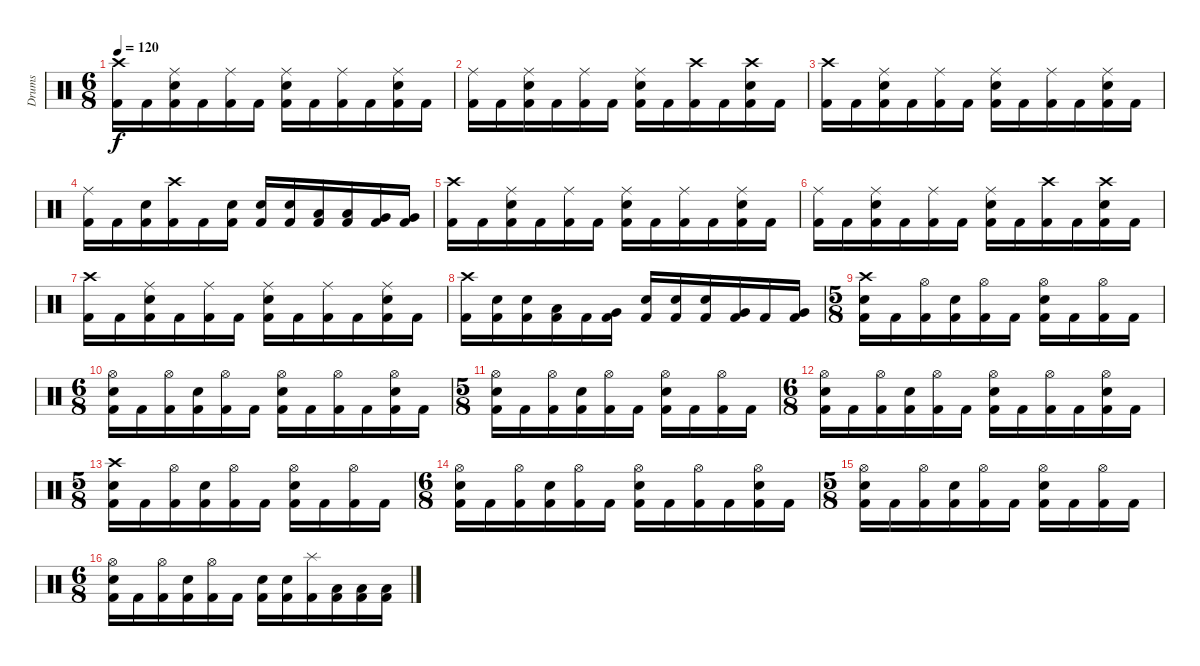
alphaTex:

\track ("Drums" "Drums") {instrument percussion}
\staff {score}
\articulation defaults
\ts (6 8)
\tempo 120
\clef neutral
\ks c
("Crash high (hit)" "Kick (hit) 2").16{dy f} "Kick (hit) 2".16 ("Ride (middle)" "Snare (hit) 2" "Kick (hit) 2").16 "Kick (hit) 2".16 ("Ride (middle)" "Kick (hit) 2").16 "Kick (hit) 2".16 ("Ride (middle)" "Snare (hit) 2" "Kick (hit) 2").16 "Kick (hit) 2".16 ("Ride (middle)" "Kick (hit) 2").16 "Kick (hit) 2".16 ("Ride (middle)" "Snare (hit) 2" "Kick (hit) 2").16 "Kick (hit) 2".16 |
("Ride (middle)" "Kick (hit) 2").16 "Kick (hit) 2".16 ("Ride (middle)" "Snare (hit) 2" "Kick (hit) 2").16 "Kick (hit) 2".16 ("Ride (middle)" "Kick (hit) 2").16 "Kick (hit) 2".16 ("Ride (middle)" "Snare (hit) 2" "Kick (hit) 2").16 "Kick (hit) 2".16 ("Crash high (hit)" "Kick (hit) 2").16 "Kick (hit) 2".16 ("Crash high (hit)" "Snare (hit) 2" "Kick (hit) 2").16 "Kick (hit) 2".16 |
("Crash high (hit)" "Kick (hit) 2").16 "Kick (hit) 2".16 ("Ride (middle)" "Snare (hit) 2" "Kick (hit) 2").16 "Kick (hit) 2".16 ("Ride (middle)" "Kick (hit) 2").16 "Kick (hit) 2".16 ("Ride (middle)" "Snare (hit) 2" "Kick (hit) 2").16 "Kick (hit) 2".16 ("Ride (middle)" "Kick (hit) 2").16 "Kick (hit) 2".16 ("Ride (middle)" "Snare (hit) 2" "Kick (hit) 2").16 "Kick (hit) 2".16 |
("Ride (middle)" "Kick (hit) 2").16 "Kick (hit) 2".16 ("Snare (hit) 2" "Kick (hit) 2").16 ("Crash high (hit)" "Kick (hit) 2").16 "Kick (hit) 2".16 ("Snare (hit) 2" "Kick (hit) 2").16 ("Snare (hit) 2" "Kick (hit) 2").16 ("Snare (hit) 2" "Kick (hit) 2").16 ("Low Tom (hit)" "Kick (hit) 2").16 ("Low Tom (hit)" "Kick (hit) 2").16 ("Very Low Tom (hit)" "Kick (hit) 2").16 ("Very Low Tom (hit)" "Kick (hit) 2").16 |
("Crash high (hit)" "Kick (hit) 2").16 "Kick (hit) 2".16 ("Ride (middle)" "Snare (hit) 2" "Kick (hit) 2").16 "Kick (hit) 2".16 ("Ride (middle)" "Kick (hit) 2").16 "Kick (hit) 2".16 ("Ride (middle)" "Snare (hit) 2" "Kick (hit) 2").16 "Kick (hit) 2".16 ("Ride (middle)" "Kick (hit) 2").16 "Kick (hit) 2".16 ("Ride (middle)" "Snare (hit) 2" "Kick (hit) 2").16 "Kick (hit) 2".16 |
("Ride (middle)" "Kick (hit) 2").16 "Kick (hit) 2".16 ("Ride (middle)" "Snare (hit) 2" "Kick (hit) 2").16 "Kick (hit) 2".16 ("Ride (middle)" "Kick (hit) 2").16 "Kick (hit) 2".16 ("Ride (middle)" "Snare (hit) 2" "Kick (hit) 2").16 "Kick (hit) 2".16 ("Crash high (hit)" "Kick (hit) 2").16 "Kick (hit) 2".16 ("Crash high (hit)" "Snare (hit) 2" "Kick (hit) 2").16 "Kick (hit) 2".16 |
("Crash high (hit)" "Kick (hit) 2").16 "Kick (hit) 2".16 ("Ride (middle)" "Snare (hit) 2" "Kick (hit) 2").16 "Kick (hit) 2".16 ("Ride (middle)" "Kick (hit) 2").16 "Kick (hit) 2".16 ("Ride (middle)" "Snare (hit) 2" "Kick (hit) 2").16 "Kick (hit) 2".16 ("Ride (middle)" "Kick (hit) 2").16 "Kick (hit) 2".16 ("Ride (middle)" "Snare (hit) 2" "Kick (hit) 2").16 "Kick (hit) 2".16 |
("Crash high (hit)" "Kick (hit) 2").16 ("Snare (hit) 2" "Kick (hit) 2").16 ("Snare (hit) 2" "Kick (hit) 2").16 ("Low Tom (hit)" "Kick (hit) 2").16 "Kick (hit) 2".16 ("Very Low Tom (hit)" "Kick (hit) 2").16 ("Snare (hit) 2" "Kick (hit) 2").16 ("Snare (hit) 2" "Kick (hit) 2").16 ("Snare (hit) 2" "Kick (hit) 2").16 ("Very Low Tom (hit)" "Kick (hit) 2").16 "Kick (hit) 2".16 ("Very Low Tom (hit)" "Kick (hit) 2").16 |
\ts (5 8)
("Crash high (hit)" "Snare (hit) 2" "Kick (hit) 2").16 "Kick (hit) 2".16 ("Hi-Hat (open)" "Kick (hit) 2").16 ("Snare (hit) 2" "Kick (hit) 2").16 ("Hi-Hat (open)" "Kick (hit) 2").16 "Kick (hit) 2".16 ("Hi-Hat (open)" "Snare (hit) 2" "Kick (hit) 2").16 "Kick (hit) 2".16 ("Hi-Hat (open)" "Kick (hit) 2").16 "Kick (hit) 2".16 |
\ts (6 8)
("Hi-Hat (open)" "Snare (hit) 2" "Kick (hit) 2").16 "Kick (hit) 2".16 ("Hi-Hat (open)" "Kick (hit) 2").16 ("Snare (hit) 2" "Kick (hit) 2").16 ("Hi-Hat (open)" "Kick (hit) 2").16 "Kick (hit) 2".16 ("Hi-Hat (open)" "Snare (hit) 2" "Kick (hit) 2").16 "Kick (hit) 2".16 ("Hi-Hat (open)" "Kick (hit) 2").16 "Kick (hit) 2".16 ("Hi-Hat (open)" "Snare (hit) 2" "Kick (hit) 2").16 "Kick (hit) 2".16 |
\ts (5 8)
("Hi-Hat (open)" "Snare (hit) 2" "Kick (hit) 2").16 "Kick (hit) 2".16 ("Hi-Hat (open)" "Kick (hit) 2").16 ("Snare (hit) 2" "Kick (hit) 2").16 ("Hi-Hat (open)" "Kick (hit) 2").16 "Kick (hit) 2".16 ("Hi-Hat (open)" "Snare (hit) 2" "Kick (hit) 2").16 "Kick (hit) 2".16 ("Hi-Hat (open)" "Kick (hit) 2").16 "Kick (hit) 2".16 |
\ts (6 8)
("Hi-Hat (open)" "Snare (hit) 2" "Kick (hit) 2").16 "Kick (hit) 2".16 ("Hi-Hat (open)" "Kick (hit) 2").16 ("Snare (hit) 2" "Kick (hit) 2").16 ("Hi-Hat (open)" "Kick (hit) 2").16 "Kick (hit) 2".16 ("Hi-Hat (open)" "Snare (hit) 2" "Kick (hit) 2").16 "Kick (hit) 2".16 ("Hi-Hat (open)" "Kick (hit) 2").16 "Kick (hit) 2".16 ("Hi-Hat (open)" "Snare (hit) 2" "Kick (hit) 2").16 "Kick (hit) 2".16 |
\ts (5 8)
("Crash high (hit)" "Snare (hit) 2" "Kick (hit) 2").16 "Kick (hit) 2".16 ("Hi-Hat (open)" "Kick (hit) 2").16 ("Snare (hit) 2" "Kick (hit) 2").16 ("Hi-Hat (open)" "Kick (hit) 2").16 "Kick (hit) 2".16 ("Hi-Hat (open)" "Snare (hit) 2" "Kick (hit) 2").16 "Kick (hit) 2".16 ("Hi-Hat (open)" "Kick (hit) 2").16 "Kick (hit) 2".16 |
\ts (6 8)
("Hi-Hat (open)" "Snare (hit) 2" "Kick (hit) 2").16 "Kick (hit) 2".16 ("Hi-Hat (open)" "Kick (hit) 2").16 ("Snare (hit) 2" "Kick (hit) 2").16 ("Hi-Hat (open)" "Kick (hit) 2").16 "Kick (hit) 2".16 ("Hi-Hat (open)" "Snare (hit) 2" "Kick (hit) 2").16 "Kick (hit) 2".16 ("Hi-Hat (open)" "Kick (hit) 2").16 "Kick (hit) 2".16 ("Hi-Hat (open)" "Snare (hit) 2" "Kick (hit) 2").16 "Kick (hit) 2".16 |
\ts (5 8)
("Hi-Hat (open)" "Snare (hit) 2" "Kick (hit) 2").16 "Kick (hit) 2".16 ("Hi-Hat (open)" "Kick (hit) 2").16 ("Snare (hit) 2" "Kick (hit) 2").16 ("Hi-Hat (open)" "Kick (hit) 2").16 "Kick (hit) 2".16 ("Hi-Hat (open)" "Snare (hit) 2" "Kick (hit) 2").16 "Kick (hit) 2".16 ("Hi-Hat (open)" "Kick (hit) 2").16 "Kick (hit) 2".16 |
\ts (6 8)
("Hi-Hat (open)" "Snare (hit) 2" "Kick (hit) 2").16 "Kick (hit) 2".16 ("Hi-Hat (open)" "Kick (hit) 2").16 ("Snare (hit) 2" "Kick (hit) 2").16 ("Hi-Hat (open)" "Kick (hit) 2").16 "Kick (hit) 2".16 ("Snare (hit) 2" "Kick (hit) 2").16 ("Snare (hit) 2" "Kick (hit) 2").16 ("Splash (hit)" "Kick (hit) 2").16 ("Low Tom (hit)" "Kick (hit) 2").16 ("Low Tom (hit)" "Kick (hit) 2").16 ("Low Tom (hit)" "Kick (hit) 2").16
